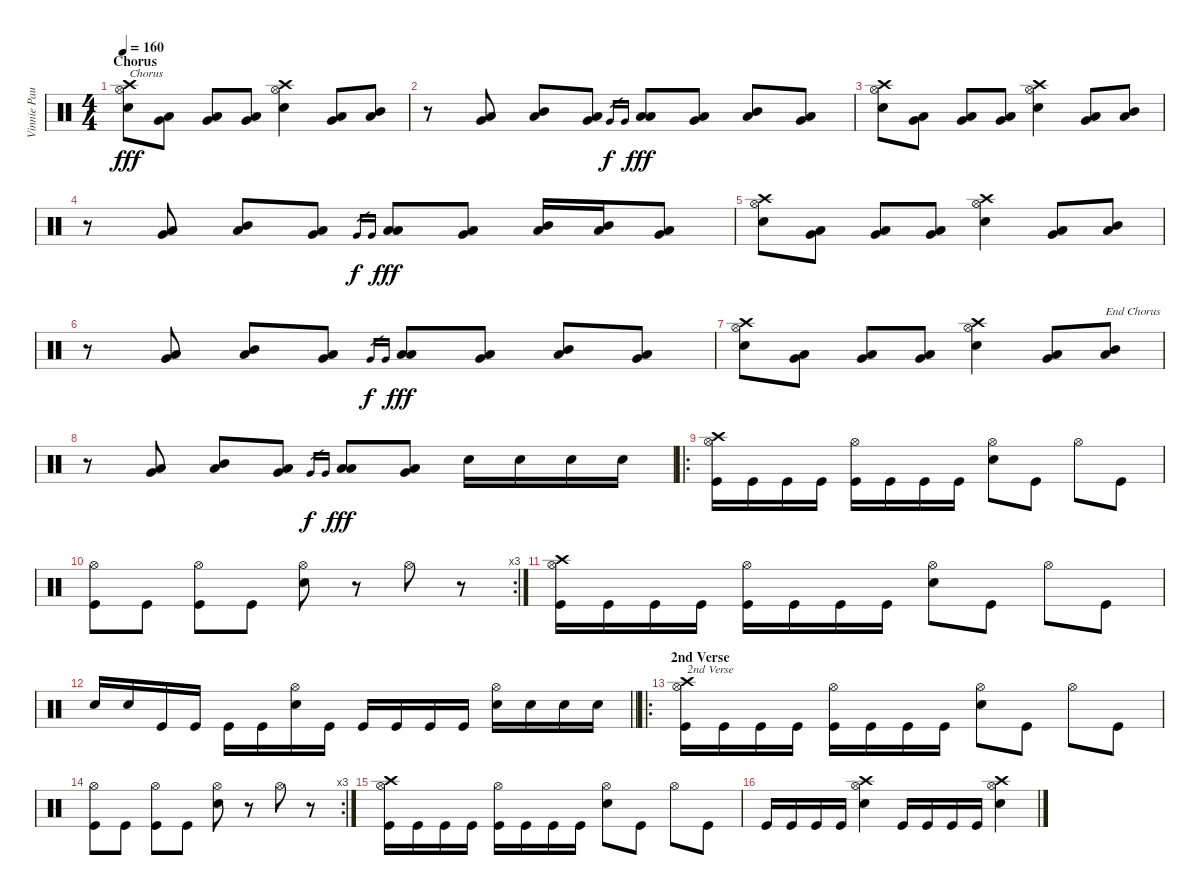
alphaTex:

\track ("Vinnie Paul" "Vinnie Pau") {instrument percussion}
\staff {score}
\articulation defaults
\ts (4 4)
\section ("" "Chorus")
\tempo 160
\clef neutral
\ks c
("Electric Snare (hit)" "Crash high (hit)" "Hi-Hat (open)").8{txt "Chorus" dy fff} ("Low Tom (hit)" "Very Low Tom (hit)").8 ("Low Tom (hit)" "Very Low Tom (hit)").8 ("Low Tom (hit)" "Very Low Tom (hit)").8 ("Electric Snare (hit)" "Crash high (hit)" "Hi-Hat (open)").4 ("Low Tom (hit)" "Very Low Tom (hit)").8 ("Mid Tom (hit)" "Low Tom (hit)").8 |
r.8 ("Low Tom (hit)" "Very Low Tom (hit)").8 ("Mid Tom (hit)" "Low Tom (hit)").8 ("Low Tom (hit)" "Very Low Tom (hit)").8 "Very Low Tom (hit)".16{gr dy f} "Very Low Tom (hit)".16{gr} ("Low Tom (hit)" "Low Tom (hit)").8{dy fff} ("Low Tom (hit)" "Very Low Tom (hit)").8 ("Mid Tom (hit)" "Low Tom (hit)").8 ("Low Tom (hit)" "Very Low Tom (hit)").8 |
("Electric Snare (hit)" "Crash high (hit)" "Hi-Hat (open)").8 ("Low Tom (hit)" "Very Low Tom (hit)").8 ("Low Tom (hit)" "Very Low Tom (hit)").8 ("Low Tom (hit)" "Very Low Tom (hit)").8 ("Electric Snare (hit)" "Crash high (hit)" "Hi-Hat (open)").4 ("Low Tom (hit)" "Very Low Tom (hit)").8 ("Mid Tom (hit)" "Low Tom (hit)").8 |
r.8 ("Low Tom (hit)" "Very Low Tom (hit)").8 ("Mid Tom (hit)" "Low Tom (hit)").8 ("Low Tom (hit)" "Very Low Tom (hit)").8 "Very Low Tom (hit)".16{gr dy f} "Very Low Tom (hit)".16{gr} ("Low Tom (hit)" "Low Tom (hit)").8{dy fff} ("Low Tom (hit)" "Very Low Tom (hit)").8 ("Mid Tom (hit)" "Low Tom (hit)").16 ("Mid Tom (hit)" "Low Tom (hit)").16 ("Low Tom (hit)" "Very Low Tom (hit)").8 |
("Electric Snare (hit)" "Crash high (hit)" "Hi-Hat (open)").8 ("Low Tom (hit)" "Very Low Tom (hit)").8 ("Low Tom (hit)" "Very Low Tom (hit)").8 ("Low Tom (hit)" "Very Low Tom (hit)").8 ("Electric Snare (hit)" "Crash high (hit)" "Hi-Hat (open)").4 ("Low Tom (hit)" "Very Low Tom (hit)").8 ("Mid Tom (hit)" "Low Tom (hit)").8 |
r.8 ("Low Tom (hit)" "Very Low Tom (hit)").8 ("Mid Tom (hit)" "Low Tom (hit)").8 ("Low Tom (hit)" "Very Low Tom (hit)").8 "Very Low Tom (hit)".16{gr dy f} "Very Low Tom (hit)".16{gr} ("Low Tom (hit)" "Low Tom (hit)").8{dy fff} ("Low Tom (hit)" "Very Low Tom (hit)").8 ("Mid Tom (hit)" "Low Tom (hit)").8 ("Low Tom (hit)" "Very Low Tom (hit)").8 |
("Electric Snare (hit)" "Crash high (hit)" "Hi-Hat (open)").8 ("Low Tom (hit)" "Very Low Tom (hit)").8 ("Low Tom (hit)" "Very Low Tom (hit)").8 ("Low Tom (hit)" "Very Low Tom (hit)").8 ("Electric Snare (hit)" "Crash high (hit)" "Hi-Hat (open)").4 ("Low Tom (hit)" "Very Low Tom (hit)").8 ("Mid Tom (hit)" "Low Tom (hit)").8{txt "End Chorus"} |
r.8 ("Low Tom (hit)" "Very Low Tom (hit)").8 ("Mid Tom (hit)" "Low Tom (hit)").8 ("Low Tom (hit)" "Very Low Tom (hit)").8 "Very Low Tom (hit)".16{gr dy f} "Very Low Tom (hit)".16{gr} ("Low Tom (hit)" "Low Tom (hit)").8{dy fff} ("Low Tom (hit)" "Very Low Tom (hit)").8 "Electric Snare (hit)".16 "Electric Snare (hit)".16 "Electric Snare (hit)".16 "Electric Snare (hit)".16 |
\ro
("Kick (hit)" "Crash high (hit)" "Hi-Hat (open)").16 "Kick (hit)".16 "Kick (hit)".16 "Kick (hit)".16 ("Kick (hit)" "Hi-Hat (open)").16 "Kick (hit)".16 "Kick (hit)".16 "Kick (hit)".16 ("Electric Snare (hit)" "Hi-Hat (open)").8 "Kick (hit)".8 "Hi-Hat (open)".8 "Kick (hit)".8 |
\rc 3
("Kick (hit)" "Hi-Hat (open)").8 "Kick (hit)".8 ("Kick (hit)" "Hi-Hat (open)").8 "Kick (hit)".8 ("Electric Snare (hit)" "Hi-Hat (open)").8 r.8 "Hi-Hat (open)".8 r.8 |
("Kick (hit)" "Crash high (hit)" "Hi-Hat (open)").16 "Kick (hit)".16 "Kick (hit)".16 "Kick (hit)".16 ("Kick (hit)" "Hi-Hat (open)").16 "Kick (hit)".16 "Kick (hit)".16 "Kick (hit)".16 ("Electric Snare (hit)" "Hi-Hat (open)").8 "Kick (hit)".8 "Hi-Hat (open)".8 "Kick (hit)".8 |
\barLineRight lightlight "Electric Snare (hit)".16 "Electric Snare (hit)".16 "Kick (hit)".16 "Kick (hit)".16 "Kick (hit)".16 "Kick (hit)".16
("Electric Snare (hit)" "Hi-Hat (open)").16 "Kick (hit)".16 "Kick (hit)".16 "Kick (hit)".16 "Kick (hit)".16 "Kick (hit)".16 ("Electric Snare (hit)" "Hi-Hat (open)").16 "Electric Snare (hit)".16 "Electric Snare (hit)".16 "Electric Snare (hit)".16 |
\ro
\section ("" "2nd Verse")
("Kick (hit)" "Crash high (hit)" "Hi-Hat (open)").16{txt "2nd Verse"} "Kick (hit)".16 "Kick (hit)".16 "Kick (hit)".16 ("Kick (hit)" "Hi-Hat (open)").16 "Kick (hit)".16 "Kick (hit)".16 "Kick (hit)".16 ("Electric Snare (hit)" "Hi-Hat (open)").8 "Kick (hit)".8 "Hi-Hat (open)".8 "Kick (hit)".8 |
\rc 3
("Kick (hit)" "Hi-Hat (open)").8 "Kick (hit)".8 ("Kick (hit)" "Hi-Hat (open)").8 "Kick (hit)".8 ("Electric Snare (hit)" "Hi-Hat (open)").8 r.8 "Hi-Hat (open)".8 r.8 |
("Kick (hit)" "Crash high (hit)" "Hi-Hat (open)").16 "Kick (hit)".16 "Kick (hit)".16 "Kick (hit)".16 ("Kick (hit)" "Hi-Hat (open)").16 "Kick (hit)".16 "Kick (hit)".16 "Kick (hit)".16 ("Electric Snare (hit)" "Hi-Hat (open)").8 "Kick (hit)".8 "Hi-Hat (open)".8 "Kick (hit)".8 |
"Kick (hit)".16 "Kick (hit)".16 "Kick (hit)".16 "Kick (hit)".16 ("Electric Snare (hit)" "Crash high (hit)" "Hi-Hat (open)").4 "Kick (hit)".16 "Kick (hit)".16 "Kick (hit)".16 "Kick (hit)".16 ("Electric Snare (hit)" "Crash high (hit)" "Hi-Hat (open)").4
